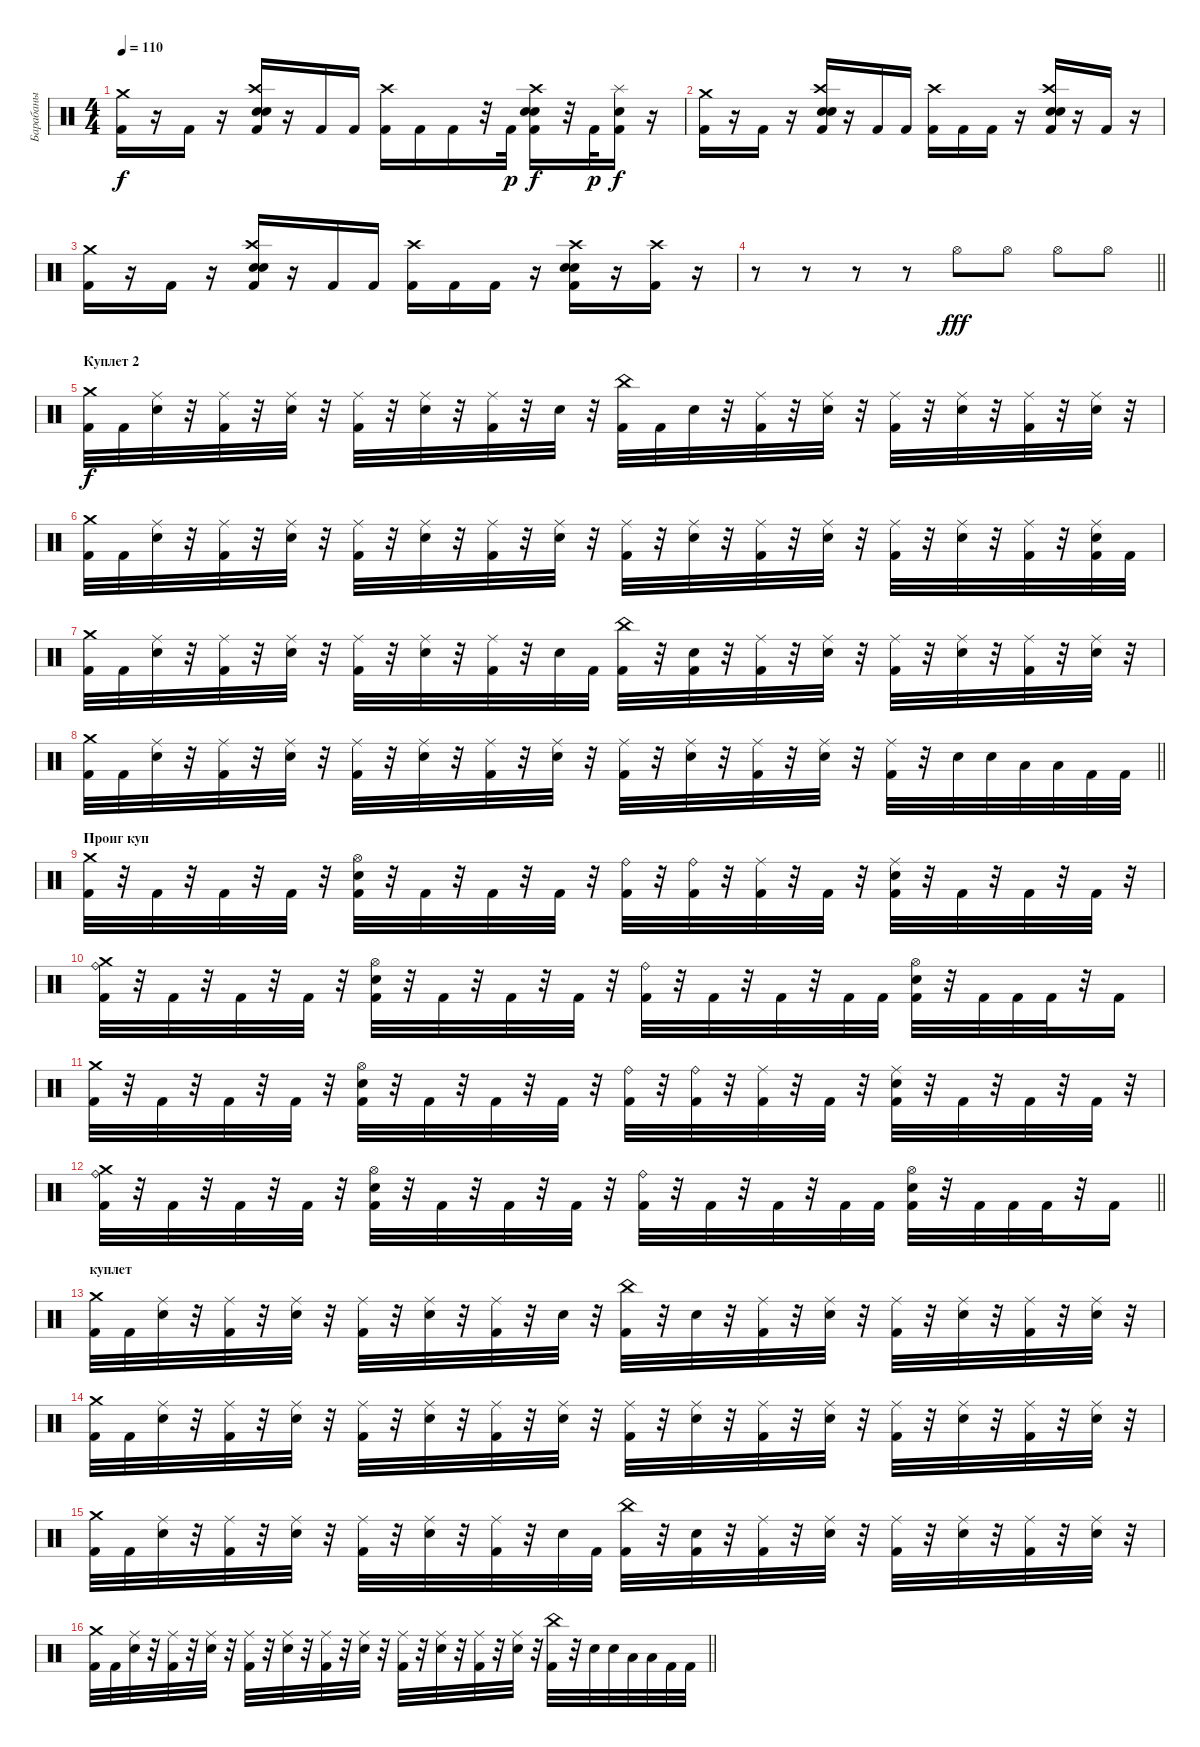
\track ("Барабаны" "Барабаны") {instrument percussion}
\staff {score}
\articulation defaults
\ts (4 4)
\tempo 110
\clef neutral
\ks c
("Crash medium (hit)" "Kick (hit) 2").16{dy f} r.16 "Kick (hit) 2".16 r.16 ("Crash high (hit)" "Electric Snare (hit)" "Snare (hit) 2" "Kick (hit) 2").16 r.16 "Kick (hit) 2".16 "Kick (hit) 2".16 ("Crash high (hit)" "Kick (hit) 2").16 "Kick (hit) 2".16 "Kick (hit) 2".16 r.32 "Kick (hit) 2".32{dy p} ("Crash high (hit)" "Snare (hit) 2" "Electric Snare (hit)" "Kick (hit) 2").16{dy f} r.32 "Kick (hit) 2".32{dy p} ("Splash (hit)" "Electric Snare (hit)" "Kick (hit) 2").16{dy f} r.16 |
("Crash medium (hit)" "Kick (hit) 2").16 r.16 "Kick (hit) 2".16 r.16 ("Crash high (hit)" "Electric Snare (hit)" "Snare (hit) 2" "Kick (hit) 2").16 r.16 "Kick (hit) 2".16 "Kick (hit) 2".16 ("Crash high (hit)" "Kick (hit) 2").16 "Kick (hit) 2".16 "Kick (hit) 2".16 r.16 ("Crash high (hit)" "Snare (hit) 2" "Electric Snare (hit)" "Kick (hit) 2").16 r.16 "Kick (hit) 2".16 r.16 |
("Crash medium (hit)" "Kick (hit) 2").16 r.16 "Kick (hit) 2".16 r.16 ("Crash high (hit)" "Electric Snare (hit)" "Snare (hit) 2" "Kick (hit) 2").16 r.16 "Kick (hit) 2".16 "Kick (hit) 2".16 ("Crash high (hit)" "Kick (hit) 2").16 "Kick (hit) 2".16 "Kick (hit) 2".16 r.16 ("Crash high (hit)" "Snare (hit) 2" "Electric Snare (hit)" "Kick (hit) 2").16 r.16 ("Crash high (hit)" "Kick (hit) 2").16 r.16{volume 0} |
\barLineRight lightlight
r.8 r.8 r.8 r.8 "Hi-Hat (open)".8{dy fff volume 15} "Hi-Hat (open)".8 "Hi-Hat (open)".8 "Hi-Hat (open)".8 |
\section ("" "Куплет 2")
("Crash medium (hit)" "Kick (hit) 2").32{dy f volume 15} "Kick (hit) 2".32 ("Ride (middle)" "Electric Snare (hit)").32 r.32 ("Ride (middle)" "Kick (hit) 2").32 r.32 ("Ride (middle)" "Electric Snare (hit)").32 r.32 ("Ride (middle)" "Kick (hit) 2").32 r.32 ("Ride (middle)" "Electric Snare (hit)").32 r.32 ("Ride (middle)" "Kick (hit) 2").32 r.32 "Electric Snare (hit)".32 r.32 ("China (hit)" "Kick (hit) 2").32 "Kick (hit) 2".32 "Electric Snare (hit)".32 r.32 ("Ride (middle)" "Kick (hit) 2").32 r.32 ("Ride (middle)" "Electric Snare (hit)").32 r.32 ("Ride (middle)" "Kick (hit) 2").32 r.32 ("Ride (middle)" "Electric Snare (hit)").32 r.32 ("Ride (middle)" "Kick (hit) 2").32 r.32 ("Ride (middle)" "Electric Snare (hit)").32 r.32 |
("Crash medium (hit)" "Kick (hit) 2").32 "Kick (hit) 2".32 ("Ride (middle)" "Electric Snare (hit)").32 r.32 ("Ride (middle)" "Kick (hit) 2").32 r.32 ("Ride (middle)" "Electric Snare (hit)").32 r.32 ("Ride (middle)" "Kick (hit) 2").32 r.32 ("Ride (middle)" "Electric Snare (hit)").32 r.32 ("Ride (middle)" "Kick (hit) 2").32 r.32 ("Ride (middle)" "Electric Snare (hit)").32 r.32 ("Ride (middle)" "Kick (hit) 2").32 r.32 ("Ride (middle)" "Electric Snare (hit)").32 r.32 ("Ride (middle)" "Kick (hit) 2").32 r.32 ("Ride (middle)" "Electric Snare (hit)").32 r.32 ("Ride (middle)" "Kick (hit) 2").32 r.32 ("Ride (middle)" "Electric Snare (hit)").32 r.32 ("Ride (middle)" "Kick (hit) 2").32 r.32 ("Ride (middle)" "Electric Snare (hit)" "Kick (hit) 2").32 "Kick (hit) 2".32 |
("Crash medium (hit)" "Kick (hit) 2").32 "Kick (hit) 2".32 ("Ride (middle)" "Electric Snare (hit)").32 r.32 ("Ride (middle)" "Kick (hit) 2").32 r.32 ("Ride (middle)" "Electric Snare (hit)").32 r.32 ("Ride (middle)" "Kick (hit) 2").32 r.32 ("Ride (middle)" "Electric Snare (hit)").32 r.32 ("Ride (middle)" "Kick (hit) 2").32 r.32 "Electric Snare (hit)".32 "Kick (hit) 2".32 ("China (hit)" "Kick (hit) 2").32 r.32 ("Electric Snare (hit)" "Kick (hit) 2").32 r.32 ("Ride (middle)" "Kick (hit) 2").32 r.32 ("Ride (middle)" "Electric Snare (hit)").32 r.32 ("Ride (middle)" "Kick (hit) 2").32 r.32 ("Ride (middle)" "Electric Snare (hit)").32 r.32 ("Ride (middle)" "Kick (hit) 2").32 r.32 ("Ride (middle)" "Electric Snare (hit)").32 r.32 |
\barLineRight lightlight
("Crash medium (hit)" "Kick (hit) 2").32 "Kick (hit) 2".32 ("Ride (middle)" "Electric Snare (hit)").32 r.32 ("Ride (middle)" "Kick (hit) 2").32 r.32 ("Ride (middle)" "Electric Snare (hit)").32 r.32 ("Ride (middle)" "Kick (hit) 2").32 r.32 ("Ride (middle)" "Electric Snare (hit)").32 r.32 ("Ride (middle)" "Kick (hit) 2").32 r.32 ("Ride (middle)" "Electric Snare (hit)").32 r.32 ("Ride (middle)" "Kick (hit) 2").32 r.32 ("Ride (middle)" "Electric Snare (hit)").32 r.32 ("Ride (middle)" "Kick (hit) 2").32 r.32 ("Ride (middle)" "Electric Snare (hit)").32 r.32 ("Ride (middle)" "Kick (hit) 2").32 r.32 "Electric Snare (hit)".32 "Electric Snare (hit)".32 "Low Tom (hit)".32 "Low Tom (hit)".32 "Kick (hit) 2".32 "Kick (hit) 2".32 |
\section ("" "Проиг куп")
("Crash medium (hit)" "Kick (hit) 2").32 r.32 "Kick (hit) 2".32 r.32 "Kick (hit) 2".32 r.32 "Kick (hit) 2".32 r.32 ("Hi-Hat (open)" "Snare (hit) 2" "Kick (hit) 2").32 r.32 "Kick (hit) 2".32 r.32 "Kick (hit) 2".32 r.32 "Kick (hit) 2".32 r.32 ("Ride (bell)" "Kick (hit) 2").32 r.32 ("Ride (bell)" "Kick (hit) 2").32 r.32 ("Ride (middle)" "Kick (hit) 2").32 r.32 "Kick (hit) 2".32 r.32 ("Ride (middle)" "Snare (hit) 2" "Kick (hit) 2").32 r.32 "Kick (hit) 2".32 r.32 "Kick (hit) 2".32 r.32 "Kick (hit) 2".32 r.32 |
("Crash medium (hit)" "Ride (bell)" "Kick (hit) 2").32 r.32 "Kick (hit) 2".32 r.32 "Kick (hit) 2".32 r.32 "Kick (hit) 2".32 r.32 ("Hi-Hat (open)" "Snare (hit) 2" "Kick (hit) 2").32 r.32 "Kick (hit) 2".32 r.32 "Kick (hit) 2".32 r.32 "Kick (hit) 2".32 r.32 ("Ride (bell)" "Kick (hit) 2").32 r.32 "Kick (hit) 2".32 r.32 "Kick (hit) 2".32 r.32 "Kick (hit) 2".32 "Kick (hit) 2".32 ("Hi-Hat (open)" "Snare (hit) 2" "Kick (hit) 2").32 r.32 "Kick (hit) 2".32 "Kick (hit) 2".32 "Kick (hit) 2".32 r.32 "Kick (hit) 2".16 |
("Crash medium (hit)" "Kick (hit) 2").32 r.32 "Kick (hit) 2".32 r.32 "Kick (hit) 2".32 r.32 "Kick (hit) 2".32 r.32 ("Hi-Hat (open)" "Snare (hit) 2" "Kick (hit) 2").32 r.32 "Kick (hit) 2".32 r.32 "Kick (hit) 2".32 r.32 "Kick (hit) 2".32 r.32 ("Ride (bell)" "Kick (hit) 2").32 r.32 ("Ride (bell)" "Kick (hit) 2").32 r.32 ("Ride (middle)" "Kick (hit) 2").32 r.32 "Kick (hit) 2".32 r.32 ("Ride (middle)" "Snare (hit) 2" "Kick (hit) 2").32 r.32 "Kick (hit) 2".32 r.32 "Kick (hit) 2".32 r.32 "Kick (hit) 2".32 r.32 |
\barLineRight lightlight
("Crash medium (hit)" "Ride (bell)" "Kick (hit) 2").32 r.32 "Kick (hit) 2".32 r.32 "Kick (hit) 2".32 r.32 "Kick (hit) 2".32 r.32 ("Hi-Hat (open)" "Snare (hit) 2" "Kick (hit) 2").32 r.32 "Kick (hit) 2".32 r.32 "Kick (hit) 2".32 r.32 "Kick (hit) 2".32 r.32 ("Ride (bell)" "Kick (hit) 2").32 r.32 "Kick (hit) 2".32 r.32 "Kick (hit) 2".32 r.32 "Kick (hit) 2".32 "Kick (hit) 2".32 ("Hi-Hat (open)" "Snare (hit) 2" "Kick (hit) 2").32 r.32 "Kick (hit) 2".32 "Kick (hit) 2".32 "Kick (hit) 2".32 r.32 "Kick (hit) 2".16 |
\section ("" "куплет")
("Crash medium (hit)" "Kick (hit) 2").32 "Kick (hit) 2".32 ("Ride (middle)" "Electric Snare (hit)").32 r.32 ("Ride (middle)" "Kick (hit) 2").32 r.32 ("Ride (middle)" "Electric Snare (hit)").32 r.32 ("Ride (middle)" "Kick (hit) 2").32 r.32 ("Ride (middle)" "Electric Snare (hit)").32 r.32 ("Ride (middle)" "Kick (hit) 2").32 r.32 "Electric Snare (hit)".32 r.32 ("China (hit)" "Kick (hit) 2").32 r.32 "Electric Snare (hit)".32 r.32 ("Ride (middle)" "Kick (hit) 2").32 r.32 ("Ride (middle)" "Electric Snare (hit)").32 r.32 ("Ride (middle)" "Kick (hit) 2").32 r.32 ("Ride (middle)" "Electric Snare (hit)").32 r.32 ("Ride (middle)" "Kick (hit) 2").32 r.32 ("Ride (middle)" "Electric Snare (hit)").32 r.32 |
("Crash medium (hit)" "Kick (hit) 2").32 "Kick (hit) 2".32 ("Ride (middle)" "Electric Snare (hit)").32 r.32 ("Ride (middle)" "Kick (hit) 2").32 r.32 ("Ride (middle)" "Electric Snare (hit)").32 r.32 ("Ride (middle)" "Kick (hit) 2").32 r.32 ("Ride (middle)" "Electric Snare (hit)").32 r.32 ("Ride (middle)" "Kick (hit) 2").32 r.32 ("Ride (middle)" "Electric Snare (hit)").32 r.32 ("Ride (middle)" "Kick (hit) 2").32 r.32 ("Ride (middle)" "Electric Snare (hit)").32 r.32 ("Ride (middle)" "Kick (hit) 2").32 r.32 ("Ride (middle)" "Electric Snare (hit)").32 r.32 ("Ride (middle)" "Kick (hit) 2").32 r.32 ("Ride (middle)" "Electric Snare (hit)").32 r.32 ("Ride (middle)" "Kick (hit) 2").32 r.32 ("Ride (middle)" "Electric Snare (hit)").32 r.32 |
("Crash medium (hit)" "Kick (hit) 2").32 "Kick (hit) 2".32 ("Ride (middle)" "Electric Snare (hit)").32 r.32 ("Ride (middle)" "Kick (hit) 2").32 r.32 ("Ride (middle)" "Electric Snare (hit)").32 r.32 ("Ride (middle)" "Kick (hit) 2").32 r.32 ("Ride (middle)" "Electric Snare (hit)").32 r.32 ("Ride (middle)" "Kick (hit) 2").32 r.32 "Electric Snare (hit)".32 "Kick (hit) 2".32 ("China (hit)" "Kick (hit) 2").32 r.32 ("Electric Snare (hit)" "Kick (hit) 2").32 r.32 ("Ride (middle)" "Kick (hit) 2").32 r.32 ("Ride (middle)" "Electric Snare (hit)").32 r.32 ("Ride (middle)" "Kick (hit) 2").32 r.32 ("Ride (middle)" "Electric Snare (hit)").32 r.32 ("Ride (middle)" "Kick (hit) 2").32 r.32 ("Ride (middle)" "Electric Snare (hit)").32 r.32 |
\barLineRight lightlight
("Crash medium (hit)" "Kick (hit) 2").32 "Kick (hit) 2".32 ("Ride (middle)" "Electric Snare (hit)").32 r.32 ("Ride (middle)" "Kick (hit) 2").32 r.32 ("Ride (middle)" "Electric Snare (hit)").32 r.32 ("Ride (middle)" "Kick (hit) 2").32 r.32 ("Ride (middle)" "Electric Snare (hit)").32 r.32 ("Ride (middle)" "Kick (hit) 2").32 r.32 ("Ride (middle)" "Electric Snare (hit)").32 r.32 ("Ride (middle)" "Kick (hit) 2").32 r.32 ("Ride (middle)" "Electric Snare (hit)").32 r.32 ("Ride (middle)" "Kick (hit) 2").32 r.32 ("Ride (middle)" "Electric Snare (hit)").32 r.32 ("China (hit)" "Kick (hit) 2").32 r.32 "Electric Snare (hit)".32 "Electric Snare (hit)".32 "Low Tom (hit)".32 "Low Tom (hit)".32 "Kick (hit) 2".32 "Kick (hit) 2".32
